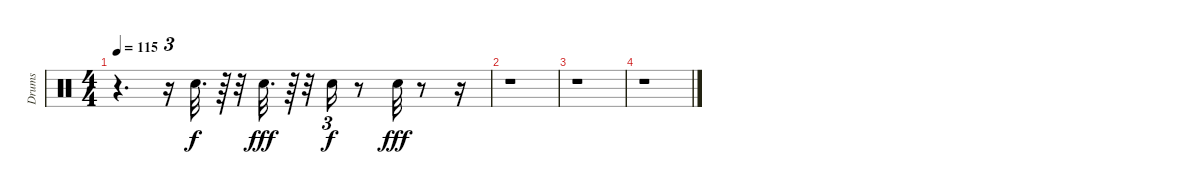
\track ("Drums" "Drums") {instrument percussion}
\staff {score}
\articulation defaults
\ts (4 4)
\tempo 115
\clef neutral
\ks c
r.4{d dy fff} r.16{tu (3 2)} "Snare (hit) 2".32{d dy f} r.64 r.32 "Snare (hit) 2".32{d dy fff} r.64 r.32 "Snare (hit) 2".16{tu (3 2) dy f} r.8 "Snare (hit) 2".32{dy fff} r.8 r.16 |
r.1 |
r.1 |
r.1
